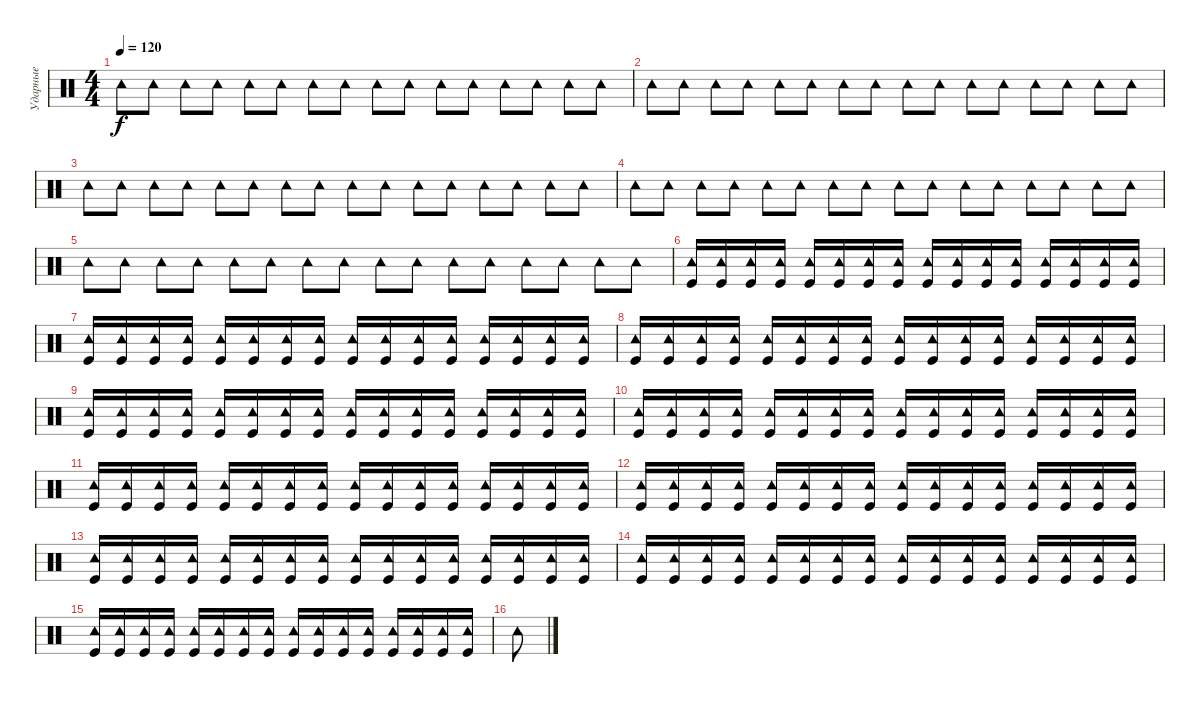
\track ("Ударные" "Ударные") {instrument percussion}
\staff {score}
\articulation defaults
\ts (4 4)
\tempo 120
\clef neutral
\ks c "Tambourine (hit)".8{dy f} "Tambourine (hit)".8 "Tambourine (hit)".8 "Tambourine (hit)".8 "Tambourine (hit)".8 "Tambourine (hit)".8 "Tambourine (hit)".8 "Tambourine (hit)".8 "Tambourine (hit)".8 "Tambourine (hit)".8 "Tambourine (hit)".8 "Tambourine (hit)".8 "Tambourine (hit)".8 "Tambourine (hit)".8 "Tambourine (hit)".8 "Tambourine (hit)".8
|
"Tambourine (hit)".8 "Tambourine (hit)".8 "Tambourine (hit)".8 "Tambourine (hit)".8 "Tambourine (hit)".8 "Tambourine (hit)".8 "Tambourine (hit)".8 "Tambourine (hit)".8 "Tambourine (hit)".8 "Tambourine (hit)".8 "Tambourine (hit)".8 "Tambourine (hit)".8 "Tambourine (hit)".8 "Tambourine (hit)".8 "Tambourine (hit)".8 "Tambourine (hit)".8 |
"Tambourine (hit)".8 "Tambourine (hit)".8 "Tambourine (hit)".8 "Tambourine (hit)".8 "Tambourine (hit)".8 "Tambourine (hit)".8 "Tambourine (hit)".8 "Tambourine (hit)".8 "Tambourine (hit)".8 "Tambourine (hit)".8 "Tambourine (hit)".8 "Tambourine (hit)".8 "Tambourine (hit)".8 "Tambourine (hit)".8 "Tambourine (hit)".8 "Tambourine (hit)".8 |
"Tambourine (hit)".8 "Tambourine (hit)".8 "Tambourine (hit)".8 "Tambourine (hit)".8 "Tambourine (hit)".8 "Tambourine (hit)".8 "Tambourine (hit)".8 "Tambourine (hit)".8 "Tambourine (hit)".8 "Tambourine (hit)".8 "Tambourine (hit)".8 "Tambourine (hit)".8 "Tambourine (hit)".8 "Tambourine (hit)".8 "Tambourine (hit)".8 "Tambourine (hit)".8 |
"Tambourine (hit)".8 "Tambourine (hit)".8 "Tambourine (hit)".8 "Tambourine (hit)".8 "Tambourine (hit)".8 "Tambourine (hit)".8 "Tambourine (hit)".8 "Tambourine (hit)".8 "Tambourine (hit)".8 "Tambourine (hit)".8 "Tambourine (hit)".8 "Tambourine (hit)".8 "Tambourine (hit)".8 "Tambourine (hit)".8 "Tambourine (hit)".8 "Tambourine (hit)".8 |
("Tambourine (hit)" "Kick (hit)").16 ("Tambourine (hit)" "Kick (hit)").16 ("Tambourine (hit)" "Kick (hit)").16 ("Tambourine (hit)" "Kick (hit)").16 ("Tambourine (hit)" "Kick (hit)").16 ("Tambourine (hit)" "Kick (hit)").16 ("Tambourine (hit)" "Kick (hit)").16 ("Tambourine (hit)" "Kick (hit)").16 ("Tambourine (hit)" "Kick (hit)").16 ("Tambourine (hit)" "Kick (hit)").16 ("Tambourine (hit)" "Kick (hit)").16 ("Tambourine (hit)" "Kick (hit)").16 ("Tambourine (hit)" "Kick (hit)").16 ("Tambourine (hit)" "Kick (hit)").16 ("Tambourine (hit)" "Kick (hit)").16 ("Tambourine (hit)" "Kick (hit)").16 |
("Tambourine (hit)" "Kick (hit)").16 ("Tambourine (hit)" "Kick (hit)").16 ("Tambourine (hit)" "Kick (hit)").16 ("Tambourine (hit)" "Kick (hit)").16 ("Tambourine (hit)" "Kick (hit)").16 ("Tambourine (hit)" "Kick (hit)").16 ("Tambourine (hit)" "Kick (hit)").16 ("Tambourine (hit)" "Kick (hit)").16 ("Tambourine (hit)" "Kick (hit)").16 ("Tambourine (hit)" "Kick (hit)").16 ("Tambourine (hit)" "Kick (hit)").16 ("Tambourine (hit)" "Kick (hit)").16 ("Tambourine (hit)" "Kick (hit)").16 ("Tambourine (hit)" "Kick (hit)").16 ("Tambourine (hit)" "Kick (hit)").16 ("Tambourine (hit)" "Kick (hit)").16 |
("Tambourine (hit)" "Kick (hit)").16 ("Tambourine (hit)" "Kick (hit)").16 ("Tambourine (hit)" "Kick (hit)").16 ("Tambourine (hit)" "Kick (hit)").16 ("Tambourine (hit)" "Kick (hit)").16 ("Tambourine (hit)" "Kick (hit)").16 ("Tambourine (hit)" "Kick (hit)").16 ("Tambourine (hit)" "Kick (hit)").16 ("Tambourine (hit)" "Kick (hit)").16 ("Tambourine (hit)" "Kick (hit)").16 ("Tambourine (hit)" "Kick (hit)").16 ("Tambourine (hit)" "Kick (hit)").16 ("Tambourine (hit)" "Kick (hit)").16 ("Tambourine (hit)" "Kick (hit)").16 ("Tambourine (hit)" "Kick (hit)").16 ("Tambourine (hit)" "Kick (hit)").16 |
("Tambourine (hit)" "Kick (hit)").16 ("Tambourine (hit)" "Kick (hit)").16 ("Tambourine (hit)" "Kick (hit)").16 ("Tambourine (hit)" "Kick (hit)").16 ("Tambourine (hit)" "Kick (hit)").16 ("Tambourine (hit)" "Kick (hit)").16 ("Tambourine (hit)" "Kick (hit)").16 ("Tambourine (hit)" "Kick (hit)").16 ("Tambourine (hit)" "Kick (hit)").16 ("Tambourine (hit)" "Kick (hit)").16 ("Tambourine (hit)" "Kick (hit)").16 ("Tambourine (hit)" "Kick (hit)").16 ("Tambourine (hit)" "Kick (hit)").16 ("Tambourine (hit)" "Kick (hit)").16 ("Tambourine (hit)" "Kick (hit)").16 ("Tambourine (hit)" "Kick (hit)").16 |
("Tambourine (hit)" "Kick (hit)").16 ("Tambourine (hit)" "Kick (hit)").16 ("Tambourine (hit)" "Kick (hit)").16 ("Tambourine (hit)" "Kick (hit)").16 ("Tambourine (hit)" "Kick (hit)").16 ("Tambourine (hit)" "Kick (hit)").16 ("Tambourine (hit)" "Kick (hit)").16 ("Tambourine (hit)" "Kick (hit)").16 ("Tambourine (hit)" "Kick (hit)").16 ("Tambourine (hit)" "Kick (hit)").16 ("Tambourine (hit)" "Kick (hit)").16 ("Tambourine (hit)" "Kick (hit)").16 ("Tambourine (hit)" "Kick (hit)").16 ("Tambourine (hit)" "Kick (hit)").16 ("Tambourine (hit)" "Kick (hit)").16 ("Tambourine (hit)" "Kick (hit)").16 |
("Tambourine (hit)" "Kick (hit)").16 ("Tambourine (hit)" "Kick (hit)").16 ("Tambourine (hit)" "Kick (hit)").16 ("Tambourine (hit)" "Kick (hit)").16 ("Tambourine (hit)" "Kick (hit)").16 ("Tambourine (hit)" "Kick (hit)").16 ("Tambourine (hit)" "Kick (hit)").16 ("Tambourine (hit)" "Kick (hit)").16 ("Tambourine (hit)" "Kick (hit)").16 ("Tambourine (hit)" "Kick (hit)").16 ("Tambourine (hit)" "Kick (hit)").16 ("Tambourine (hit)" "Kick (hit)").16 ("Tambourine (hit)" "Kick (hit)").16 ("Tambourine (hit)" "Kick (hit)").16 ("Tambourine (hit)" "Kick (hit)").16 ("Tambourine (hit)" "Kick (hit)").16 |
("Tambourine (hit)" "Kick (hit)").16 ("Tambourine (hit)" "Kick (hit)").16 ("Tambourine (hit)" "Kick (hit)").16 ("Tambourine (hit)" "Kick (hit)").16 ("Tambourine (hit)" "Kick (hit)").16 ("Tambourine (hit)" "Kick (hit)").16 ("Tambourine (hit)" "Kick (hit)").16 ("Tambourine (hit)" "Kick (hit)").16 ("Tambourine (hit)" "Kick (hit)").16 ("Tambourine (hit)" "Kick (hit)").16 ("Tambourine (hit)" "Kick (hit)").16 ("Tambourine (hit)" "Kick (hit)").16 ("Tambourine (hit)" "Kick (hit)").16 ("Tambourine (hit)" "Kick (hit)").16 ("Tambourine (hit)" "Kick (hit)").16 ("Tambourine (hit)" "Kick (hit)").16 |
("Tambourine (hit)" "Kick (hit)").16 ("Tambourine (hit)" "Kick (hit)").16 ("Tambourine (hit)" "Kick (hit)").16 ("Tambourine (hit)" "Kick (hit)").16 ("Tambourine (hit)" "Kick (hit)").16 ("Tambourine (hit)" "Kick (hit)").16 ("Tambourine (hit)" "Kick (hit)").16 ("Tambourine (hit)" "Kick (hit)").16 ("Tambourine (hit)" "Kick (hit)").16 ("Tambourine (hit)" "Kick (hit)").16 ("Tambourine (hit)" "Kick (hit)").16 ("Tambourine (hit)" "Kick (hit)").16 ("Tambourine (hit)" "Kick (hit)").16 ("Tambourine (hit)" "Kick (hit)").16 ("Tambourine (hit)" "Kick (hit)").16 ("Tambourine (hit)" "Kick (hit)").16 |
("Tambourine (hit)" "Kick (hit)").16 ("Tambourine (hit)" "Kick (hit)").16 ("Tambourine (hit)" "Kick (hit)").16 ("Tambourine (hit)" "Kick (hit)").16 ("Tambourine (hit)" "Kick (hit)").16 ("Tambourine (hit)" "Kick (hit)").16 ("Tambourine (hit)" "Kick (hit)").16 ("Tambourine (hit)" "Kick (hit)").16 ("Tambourine (hit)" "Kick (hit)").16 ("Tambourine (hit)" "Kick (hit)").16 ("Tambourine (hit)" "Kick (hit)").16 ("Tambourine (hit)" "Kick (hit)").16 ("Tambourine (hit)" "Kick (hit)").16 ("Tambourine (hit)" "Kick (hit)").16 ("Tambourine (hit)" "Kick (hit)").16 ("Tambourine (hit)" "Kick (hit)").16 |
("Tambourine (hit)" "Kick (hit)").16 ("Tambourine (hit)" "Kick (hit)").16 ("Tambourine (hit)" "Kick (hit)").16 ("Tambourine (hit)" "Kick (hit)").16 ("Tambourine (hit)" "Kick (hit)").16 ("Tambourine (hit)" "Kick (hit)").16 ("Tambourine (hit)" "Kick (hit)").16 ("Tambourine (hit)" "Kick (hit)").16 ("Tambourine (hit)" "Kick (hit)").16 ("Tambourine (hit)" "Kick (hit)").16 ("Tambourine (hit)" "Kick (hit)").16 ("Tambourine (hit)" "Kick (hit)").16 ("Tambourine (hit)" "Kick (hit)").16 ("Tambourine (hit)" "Kick (hit)").16 ("Tambourine (hit)" "Kick (hit)").16 ("Tambourine (hit)" "Kick (hit)").16 |
"Tambourine (hit)".8
